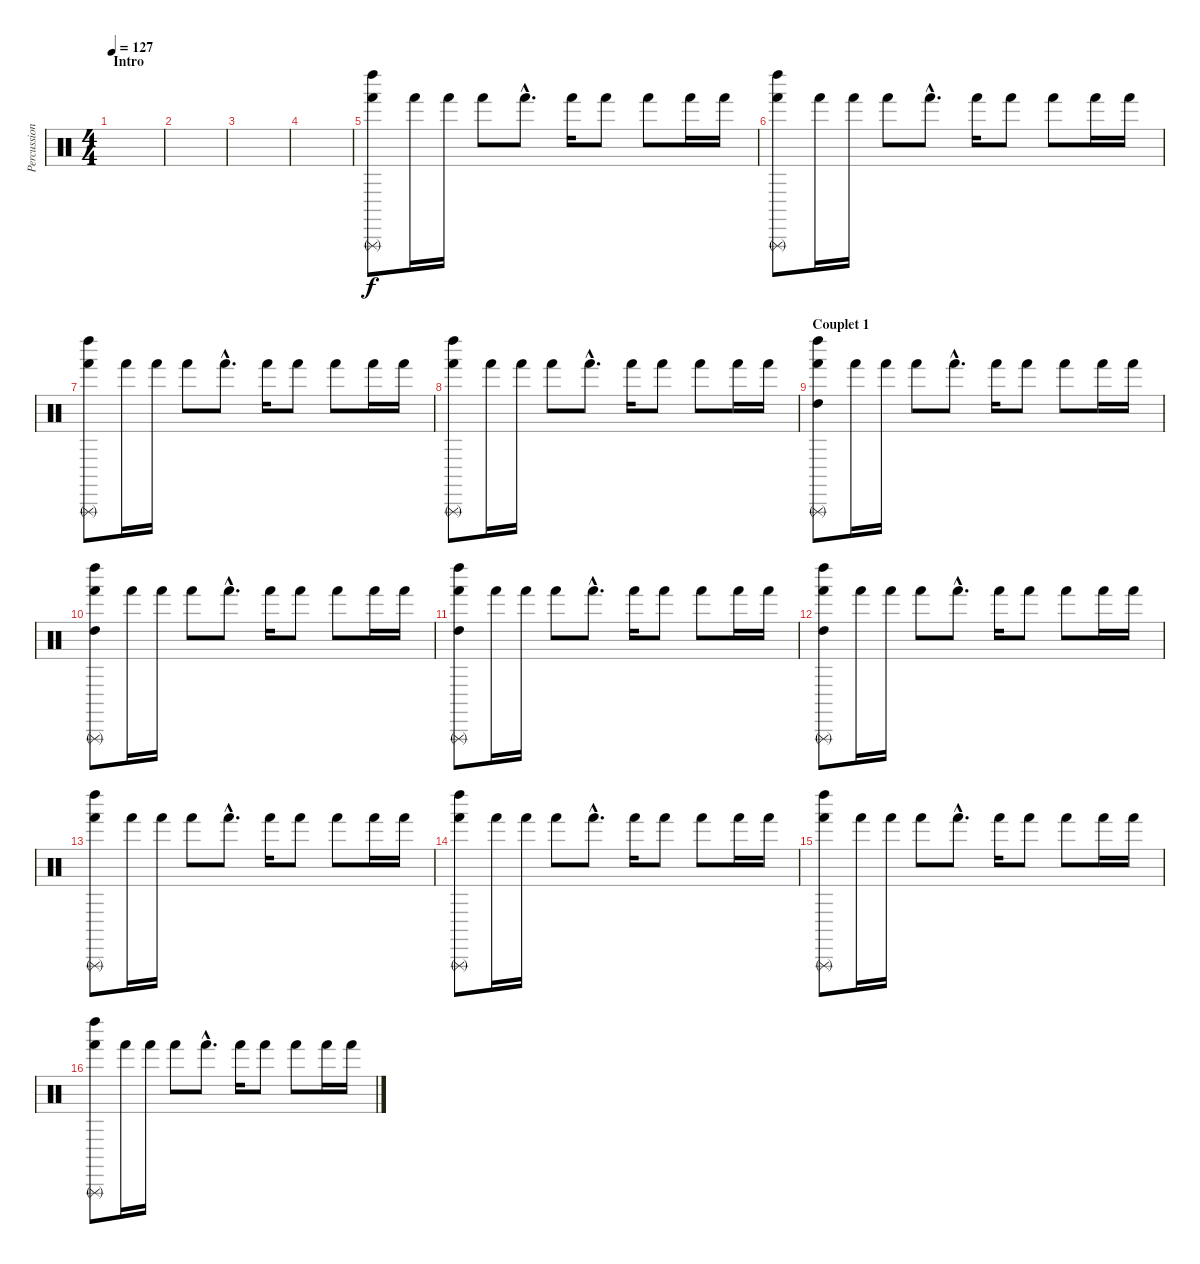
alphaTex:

\track ("Percussions" "Percussion") {instrument percussion}
\staff {score}
\articulation defaults
\ts (4 4)
\section ("" "Intro")
\tempo 127
\clef neutral
\ks c
|
|
|
|
("Hand (hit)" "Triangle (rnute)" "Left Maraca (hit)").8 "Hand (hit)".16 "Hand (hit)".16 "Hand (hit)".8 "Hand (hit)"{hac}.8{d} "Hand (hit)".16 "Hand (hit)".8 "Hand (hit)".8 "Hand (hit)".16 "Hand (hit)".16 |
("Hand (hit)" "Triangle (rnute)" "Left Maraca (hit)").8 "Hand (hit)".16 "Hand (hit)".16 "Hand (hit)".8 "Hand (hit)"{hac}.8{d} "Hand (hit)".16 "Hand (hit)".8 "Hand (hit)".8 "Hand (hit)".16 "Hand (hit)".16 |
("Hand (hit)" "Triangle (rnute)" "Left Maraca (hit)").8 "Hand (hit)".16 "Hand (hit)".16 "Hand (hit)".8 "Hand (hit)"{hac}.8{d} "Hand (hit)".16 "Hand (hit)".8 "Hand (hit)".8 "Hand (hit)".16 "Hand (hit)".16 |
("Hand (hit)" "Triangle (rnute)" "Left Maraca (hit)").8 "Hand (hit)".16 "Hand (hit)".16 "Hand (hit)".8 "Hand (hit)"{hac}.8{d} "Hand (hit)".16 "Hand (hit)".8 "Hand (hit)".8 "Hand (hit)".16 "Hand (hit)".16 |
\section ("" "Couplet 1")
("Hand (hit)" "Triangle (rnute)" "Left Maraca (hit)" "High Tom (hit)").8 "Hand (hit)".16 "Hand (hit)".16 "Hand (hit)".8 "Hand (hit)"{hac}.8{d} "Hand (hit)".16 "Hand (hit)".8 "Hand (hit)".8 "Hand (hit)".16 "Hand (hit)".16 |
("Hand (hit)" "Triangle (rnute)" "Left Maraca (hit)" "High Tom (hit)").8 "Hand (hit)".16 "Hand (hit)".16 "Hand (hit)".8 "Hand (hit)"{hac}.8{d} "Hand (hit)".16 "Hand (hit)".8 "Hand (hit)".8 "Hand (hit)".16 "Hand (hit)".16 |
("Hand (hit)" "Triangle (rnute)" "Left Maraca (hit)" "High Tom (hit)").8 "Hand (hit)".16 "Hand (hit)".16 "Hand (hit)".8 "Hand (hit)"{hac}.8{d} "Hand (hit)".16 "Hand (hit)".8 "Hand (hit)".8 "Hand (hit)".16 "Hand (hit)".16 |
("Hand (hit)" "Triangle (rnute)" "Left Maraca (hit)" "High Tom (hit)").8 "Hand (hit)".16 "Hand (hit)".16 "Hand (hit)".8 "Hand (hit)"{hac}.8{d} "Hand (hit)".16 "Hand (hit)".8 "Hand (hit)".8 "Hand (hit)".16 "Hand (hit)".16 |
("Hand (hit)" "Triangle (rnute)" "Left Maraca (hit)").8 "Hand (hit)".16 "Hand (hit)".16 "Hand (hit)".8 "Hand (hit)"{hac}.8{d} "Hand (hit)".16 "Hand (hit)".8 "Hand (hit)".8 "Hand (hit)".16 "Hand (hit)".16 |
("Hand (hit)" "Triangle (rnute)" "Left Maraca (hit)").8 "Hand (hit)".16 "Hand (hit)".16 "Hand (hit)".8 "Hand (hit)"{hac}.8{d} "Hand (hit)".16 "Hand (hit)".8 "Hand (hit)".8 "Hand (hit)".16 "Hand (hit)".16 |
("Hand (hit)" "Triangle (rnute)" "Left Maraca (hit)").8 "Hand (hit)".16 "Hand (hit)".16 "Hand (hit)".8 "Hand (hit)"{hac}.8{d} "Hand (hit)".16 "Hand (hit)".8 "Hand (hit)".8 "Hand (hit)".16 "Hand (hit)".16 |
("Hand (hit)" "Triangle (rnute)" "Left Maraca (hit)").8 "Hand (hit)".16 "Hand (hit)".16 "Hand (hit)".8 "Hand (hit)"{hac}.8{d} "Hand (hit)".16 "Hand (hit)".8 "Hand (hit)".8 "Hand (hit)".16 "Hand (hit)".16
